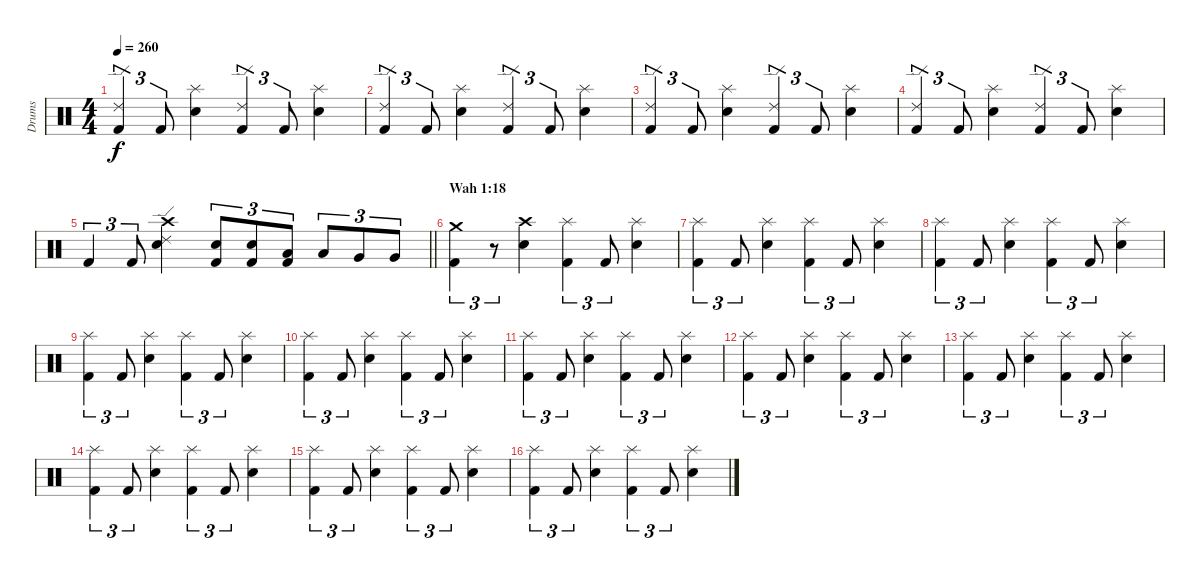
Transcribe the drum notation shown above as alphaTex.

\track ("Drums" "Drums") {instrument percussion}
\staff {score}
\articulation defaults
\ts (4 4)
\tempo 260
\clef neutral
\ks c
("Ride (edge) 2" "Kick (hit) 2").4{tu (3 2) dy f} "Kick (hit) 2".8{tu (3 2)} ("Splash (hit)" "Snare (hit) 2").4 ("Ride (edge) 2" "Kick (hit) 2").4{tu (3 2)} "Kick (hit) 2".8{tu (3 2)} ("Splash (hit)" "Snare (hit) 2").4 |
("Ride (edge) 2" "Kick (hit) 2").4{tu (3 2)} "Kick (hit) 2".8{tu (3 2)} ("Splash (hit)" "Snare (hit) 2").4 ("Ride (edge) 2" "Kick (hit) 2").4{tu (3 2)} "Kick (hit) 2".8{tu (3 2)} ("Splash (hit)" "Snare (hit) 2").4 |
("Ride (edge) 2" "Kick (hit) 2").4{tu (3 2)} "Kick (hit) 2".8{tu (3 2)} ("Splash (hit)" "Snare (hit) 2").4 ("Ride (edge) 2" "Kick (hit) 2").4{tu (3 2)} "Kick (hit) 2".8{tu (3 2)} ("Splash (hit)" "Snare (hit) 2").4 |
("Ride (edge) 2" "Kick (hit) 2").4{tu (3 2)} "Kick (hit) 2".8{tu (3 2)} ("Splash (hit)" "Snare (hit) 2").4 ("Ride (edge) 2" "Kick (hit) 2").4{tu (3 2)} "Kick (hit) 2".8{tu (3 2)} ("Splash (hit)" "Snare (hit) 2").4 |
\barLineRight lightlight "Kick (hit) 2".4{tu (3 2)} "Kick (hit) 2".8{tu (3 2)}
("Electric Snare (hit)" "Ride (edge) 2" "Crash high (hit)").4 ("Kick (hit) 2" "Electric Snare (hit)").8{tu (3 2)} ("Kick (hit) 2" "Electric Snare (hit)").8{tu (3 2)} ("Kick (hit) 2" "Low Tom (hit)").8{tu (3 2)} "Low Tom (hit)".8{tu (3 2)} "Very Low Tom (hit)".8{tu (3 2)} "Very Low Tom (hit)".8{tu (3 2)} |
\section ("" "Wah 1:18")
("Crash medium (hit)" "Kick (hit) 2").4{tu (3 2)} r.8{tu (3 2)} ("Crash high (hit)" "Snare (hit) 2").4 ("Splash (hit)" "Kick (hit) 2").4{tu (3 2)} "Kick (hit) 2".8{tu (3 2)} ("Splash (hit)" "Snare (hit) 2").4 |
("Splash (hit)" "Kick (hit) 2").4{tu (3 2)} "Kick (hit) 2".8{tu (3 2)} ("Splash (hit)" "Snare (hit) 2").4 ("Splash (hit)" "Kick (hit) 2").4{tu (3 2)} "Kick (hit) 2".8{tu (3 2)} ("Splash (hit)" "Snare (hit) 2").4 |
("Splash (hit)" "Kick (hit) 2").4{tu (3 2)} "Kick (hit) 2".8{tu (3 2)} ("Splash (hit)" "Snare (hit) 2").4 ("Splash (hit)" "Kick (hit) 2").4{tu (3 2)} "Kick (hit) 2".8{tu (3 2)} ("Splash (hit)" "Snare (hit) 2").4 |
("Splash (hit)" "Kick (hit) 2").4{tu (3 2)} "Kick (hit) 2".8{tu (3 2)} ("Splash (hit)" "Snare (hit) 2").4 ("Splash (hit)" "Kick (hit) 2").4{tu (3 2)} "Kick (hit) 2".8{tu (3 2)} ("Splash (hit)" "Snare (hit) 2").4 |
("Splash (hit)" "Kick (hit) 2").4{tu (3 2)} "Kick (hit) 2".8{tu (3 2)} ("Splash (hit)" "Snare (hit) 2").4 ("Splash (hit)" "Kick (hit) 2").4{tu (3 2)} "Kick (hit) 2".8{tu (3 2)} ("Splash (hit)" "Snare (hit) 2").4 |
("Splash (hit)" "Kick (hit) 2").4{tu (3 2)} "Kick (hit) 2".8{tu (3 2)} ("Splash (hit)" "Snare (hit) 2").4 ("Splash (hit)" "Kick (hit) 2").4{tu (3 2)} "Kick (hit) 2".8{tu (3 2)} ("Splash (hit)" "Snare (hit) 2").4 |
("Splash (hit)" "Kick (hit) 2").4{tu (3 2)} "Kick (hit) 2".8{tu (3 2)} ("Splash (hit)" "Snare (hit) 2").4 ("Splash (hit)" "Kick (hit) 2").4{tu (3 2)} "Kick (hit) 2".8{tu (3 2)} ("Splash (hit)" "Snare (hit) 2").4 |
("Splash (hit)" "Kick (hit) 2").4{tu (3 2)} "Kick (hit) 2".8{tu (3 2)} ("Splash (hit)" "Snare (hit) 2").4 ("Splash (hit)" "Kick (hit) 2").4{tu (3 2)} "Kick (hit) 2".8{tu (3 2)} ("Splash (hit)" "Snare (hit) 2").4 |
("Splash (hit)" "Kick (hit) 2").4{tu (3 2)} "Kick (hit) 2".8{tu (3 2)} ("Splash (hit)" "Snare (hit) 2").4 ("Splash (hit)" "Kick (hit) 2").4{tu (3 2)} "Kick (hit) 2".8{tu (3 2)} ("Splash (hit)" "Snare (hit) 2").4 |
("Splash (hit)" "Kick (hit) 2").4{tu (3 2)} "Kick (hit) 2".8{tu (3 2)} ("Splash (hit)" "Snare (hit) 2").4 ("Splash (hit)" "Kick (hit) 2").4{tu (3 2)} "Kick (hit) 2".8{tu (3 2)} ("Splash (hit)" "Snare (hit) 2").4 |
("Splash (hit)" "Kick (hit) 2").4{tu (3 2)} "Kick (hit) 2".8{tu (3 2)} ("Splash (hit)" "Snare (hit) 2").4 ("Splash (hit)" "Kick (hit) 2").4{tu (3 2)} "Kick (hit) 2".8{tu (3 2)} ("Splash (hit)" "Snare (hit) 2").4
